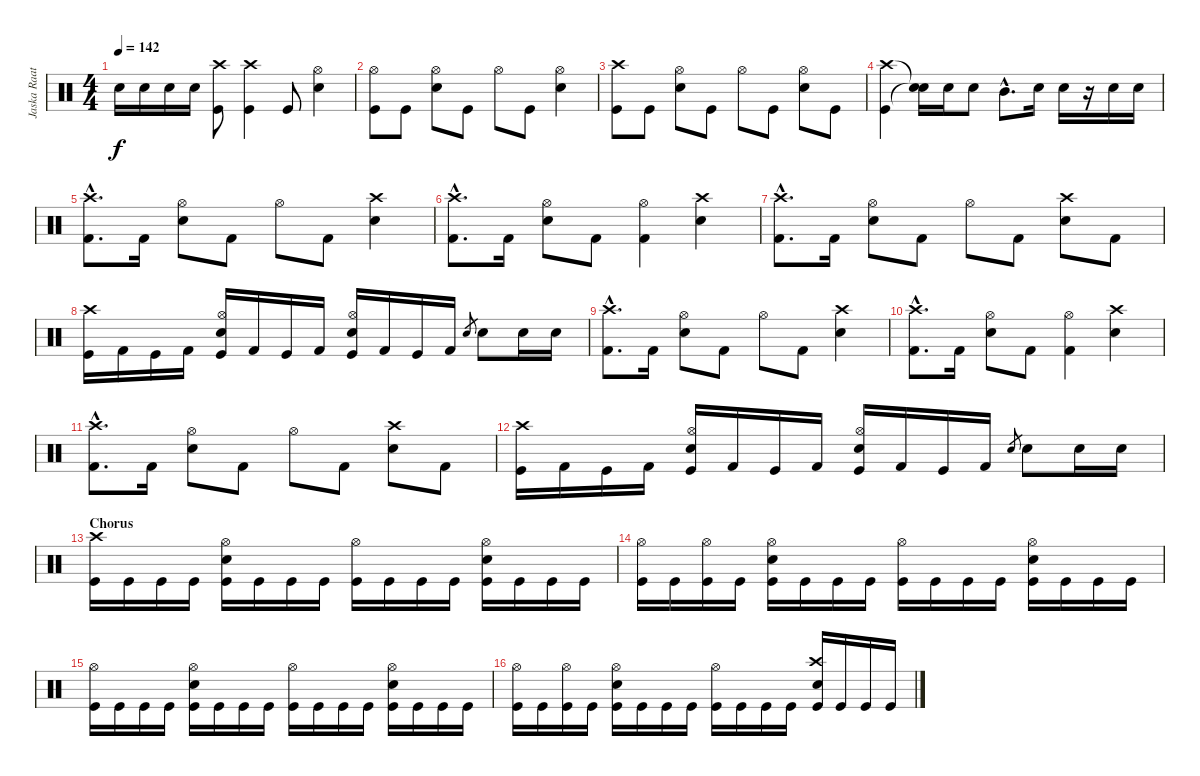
\track ("Jaska Raatikainen" "Jaska Raat") {instrument percussion}
\staff {score}
\articulation defaults
\ts (4 4)
\tempo 142
\clef neutral
\ks c "Snare (hit) 2".16{dy f} "Snare (hit) 2".16 "Snare (hit) 2".16 "Snare (hit) 2".16
("Crash high (hit)" "Kick (hit)").8 ("Crash high (hit)" "Kick (hit)").4 "Kick (hit)".8 ("Hi-Hat (open)" "Snare (hit) 2").4 |
("Hi-Hat (open)" "Kick (hit)").8 "Kick (hit)".8 ("Hi-Hat (open)" "Snare (hit) 2").8 "Kick (hit)".8 "Hi-Hat (open)".8 "Kick (hit)".8 ("Hi-Hat (open)" "Snare (hit) 2").4 |
("Crash high (hit)" "Kick (hit)").8 "Kick (hit)".8 ("Hi-Hat (open)" "Snare (hit) 2").8 "Kick (hit)".8 "Hi-Hat (open)".8 "Kick (hit)".8 ("Hi-Hat (open)" "Snare (hit) 2").8 "Kick (hit)".8 |
("Crash high (hit)" "Kick (hit)").4 ("Snare (hit)"{t} "Snare (hit)"{t}).16 "Snare (hit) 2".16 "Snare (hit) 2".8 "Mid Tom (hit)"{hac}.8{d} "Snare (hit) 2".16 "Snare (hit) 2".16 r.16 "Snare (hit) 2".16 "Snare (hit) 2".16 |
("Crash high (hit)"{hac} "Kick (hit) 2"{hac}).8{d} "Kick (hit) 2".16 ("Hi-Hat (open)" "Electric Snare (hit)").8 "Kick (hit) 2".8 "Hi-Hat (open)".8 "Kick (hit) 2".8 ("Crash high (hit)" "Electric Snare (hit)").4 |
("Crash high (hit)"{hac} "Kick (hit) 2"{hac}).8{d} "Kick (hit) 2".16 ("Hi-Hat (open)" "Electric Snare (hit)").8 "Kick (hit) 2".8 ("Hi-Hat (open)" "Kick (hit) 2").4 ("Crash high (hit)" "Electric Snare (hit)").4 |
("Crash high (hit)"{hac} "Kick (hit) 2"{hac}).8{d} "Kick (hit) 2".16 ("Hi-Hat (open)" "Electric Snare (hit)").8 "Kick (hit) 2".8 "Hi-Hat (open)".8 "Kick (hit) 2".8 ("Crash high (hit)" "Electric Snare (hit)").8 "Kick (hit) 2".8 |
("Crash high (hit)" "Kick (hit)").16 "Kick (hit) 2".16 "Kick (hit)".16 "Kick (hit) 2".16 ("Hi-Hat (open)" "Electric Snare (hit)" "Kick (hit)").16 "Kick (hit) 2".16 "Kick (hit)".16 "Kick (hit) 2".16 ("Hi-Hat (open)" "Electric Snare (hit)" "Kick (hit)").16 "Kick (hit) 2".16 "Kick (hit)".16 "Kick (hit) 2".16 "Electric Snare (hit)".8{gr} "Electric Snare (hit)".8 "Electric Snare (hit)".16 "Electric Snare (hit)".16 |
("Crash high (hit)"{hac} "Kick (hit) 2"{hac}).8{d} "Kick (hit) 2".16 ("Hi-Hat (open)" "Electric Snare (hit)").8 "Kick (hit) 2".8 "Hi-Hat (open)".8 "Kick (hit) 2".8 ("Crash high (hit)" "Electric Snare (hit)").4 |
("Crash high (hit)"{hac} "Kick (hit) 2"{hac}).8{d} "Kick (hit) 2".16 ("Hi-Hat (open)" "Electric Snare (hit)").8 "Kick (hit) 2".8 ("Hi-Hat (open)" "Kick (hit) 2").4 ("Crash high (hit)" "Electric Snare (hit)").4 |
("Crash high (hit)"{hac} "Kick (hit) 2"{hac}).8{d} "Kick (hit) 2".16 ("Hi-Hat (open)" "Electric Snare (hit)").8 "Kick (hit) 2".8 "Hi-Hat (open)".8 "Kick (hit) 2".8 ("Crash high (hit)" "Electric Snare (hit)").8 "Kick (hit) 2".8 |
("Crash high (hit)" "Kick (hit)").16 "Kick (hit) 2".16 "Kick (hit)".16 "Kick (hit) 2".16 ("Hi-Hat (open)" "Electric Snare (hit)" "Kick (hit)").16 "Kick (hit) 2".16 "Kick (hit)".16 "Kick (hit) 2".16 ("Hi-Hat (open)" "Electric Snare (hit)" "Kick (hit)").16 "Kick (hit) 2".16 "Kick (hit)".16 "Kick (hit) 2".16 "Electric Snare (hit)".8{gr} "Electric Snare (hit)".8 "Electric Snare (hit)".16 "Electric Snare (hit)".16 |
\section ("" "Chorus")
("Crash high (hit)" "Kick (hit)").16 "Kick (hit)".16 "Kick (hit)".16 "Kick (hit)".16 ("Hi-Hat (open)" "Snare (hit) 2" "Kick (hit)").16 "Kick (hit)".16 "Kick (hit)".16 "Kick (hit)".16 ("Hi-Hat (open)" "Kick (hit)").16 "Kick (hit)".16 "Kick (hit)".16 "Kick (hit)".16 ("Hi-Hat (open)" "Snare (hit) 2" "Kick (hit)").16 "Kick (hit)".16 "Kick (hit)".16 "Kick (hit)".16 |
("Hi-Hat (open)" "Kick (hit)").16 "Kick (hit)".16 ("Hi-Hat (open)" "Kick (hit)").16 "Kick (hit)".16 ("Hi-Hat (open)" "Snare (hit) 2" "Kick (hit)").16 "Kick (hit)".16 "Kick (hit)".16 "Kick (hit)".16 ("Hi-Hat (open)" "Kick (hit)").16 "Kick (hit)".16 "Kick (hit)".16 "Kick (hit)".16 ("Hi-Hat (open)" "Snare (hit) 2" "Kick (hit)").16 "Kick (hit)".16 "Kick (hit)".16 "Kick (hit)".16 |
("Hi-Hat (open)" "Kick (hit)").16 "Kick (hit)".16 "Kick (hit)".16 "Kick (hit)".16 ("Hi-Hat (open)" "Snare (hit) 2" "Kick (hit)").16 "Kick (hit)".16 "Kick (hit)".16 "Kick (hit)".16 ("Hi-Hat (open)" "Kick (hit)").16 "Kick (hit)".16 "Kick (hit)".16 "Kick (hit)".16 ("Hi-Hat (open)" "Snare (hit) 2" "Kick (hit)").16 "Kick (hit)".16 "Kick (hit)".16 "Kick (hit)".16 |
("Hi-Hat (open)" "Kick (hit)").16 "Kick (hit)".16 ("Hi-Hat (open)" "Kick (hit)").16 "Kick (hit)".16 ("Hi-Hat (open)" "Snare (hit) 2" "Kick (hit)").16 "Kick (hit)".16 "Kick (hit)".16 "Kick (hit)".16 ("Hi-Hat (open)" "Kick (hit)").16 "Kick (hit)".16 "Kick (hit)".16 "Kick (hit)".16 ("Crash high (hit)" "Snare (hit) 2" "Kick (hit)").16 "Kick (hit)".16 "Kick (hit)".16 "Kick (hit)".16
